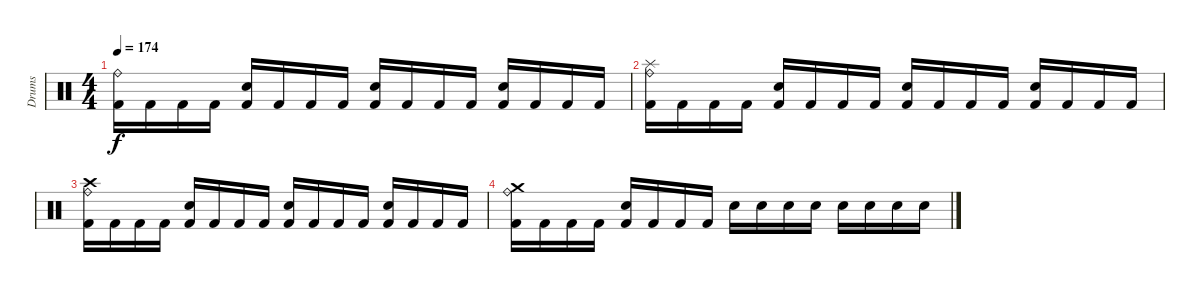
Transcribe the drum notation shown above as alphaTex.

\track ("Drums" "Drums") {instrument percussion}
\staff {score}
\articulation defaults
\ts (4 4)
\tempo 174
\clef neutral
\ks c
("Ride (bell)" "Kick (hit) 2").16{dy f} "Kick (hit) 2".16 "Kick (hit) 2".16 "Kick (hit) 2".16 ("Electric Snare (hit)" "Kick (hit) 2").16 "Kick (hit) 2".16 "Kick (hit) 2".16 "Kick (hit) 2".16 ("Electric Snare (hit)" "Kick (hit) 2").16 "Kick (hit) 2".16 "Kick (hit) 2".16 "Kick (hit) 2".16 ("Electric Snare (hit)" "Kick (hit) 2").16 "Kick (hit) 2".16 "Kick (hit) 2".16 "Kick (hit) 2".16 |
("Ride (bell)" "Splash (hit)" "Kick (hit) 2").16 "Kick (hit) 2".16 "Kick (hit) 2".16 "Kick (hit) 2".16 ("Electric Snare (hit)" "Kick (hit) 2").16 "Kick (hit) 2".16 "Kick (hit) 2".16 "Kick (hit) 2".16 ("Electric Snare (hit)" "Kick (hit) 2").16 "Kick (hit) 2".16 "Kick (hit) 2".16 "Kick (hit) 2".16 ("Electric Snare (hit)" "Kick (hit) 2").16 "Kick (hit) 2".16 "Kick (hit) 2".16 "Kick (hit) 2".16 |
("Ride (bell)" "Crash high (hit)" "Kick (hit) 2").16 "Kick (hit) 2".16 "Kick (hit) 2".16 "Kick (hit) 2".16 ("Electric Snare (hit)" "Kick (hit) 2").16 "Kick (hit) 2".16 "Kick (hit) 2".16 "Kick (hit) 2".16 ("Electric Snare (hit)" "Kick (hit) 2").16 "Kick (hit) 2".16 "Kick (hit) 2".16 "Kick (hit) 2".16 ("Electric Snare (hit)" "Kick (hit) 2").16 "Kick (hit) 2".16 "Kick (hit) 2".16 "Kick (hit) 2".16 |
("Ride (bell)" "Crash medium (hit)" "Kick (hit) 2").16 "Kick (hit) 2".16 "Kick (hit) 2".16 "Kick (hit) 2".16 ("Electric Snare (hit)" "Kick (hit) 2").16 "Kick (hit) 2".16 "Kick (hit) 2".16 "Kick (hit) 2".16 "Electric Snare (hit)".16 "Electric Snare (hit)".16 "Electric Snare (hit)".16 "Electric Snare (hit)".16 "Electric Snare (hit)".16 "Electric Snare (hit)".16 "Electric Snare (hit)".16 "Electric Snare (hit)".16
